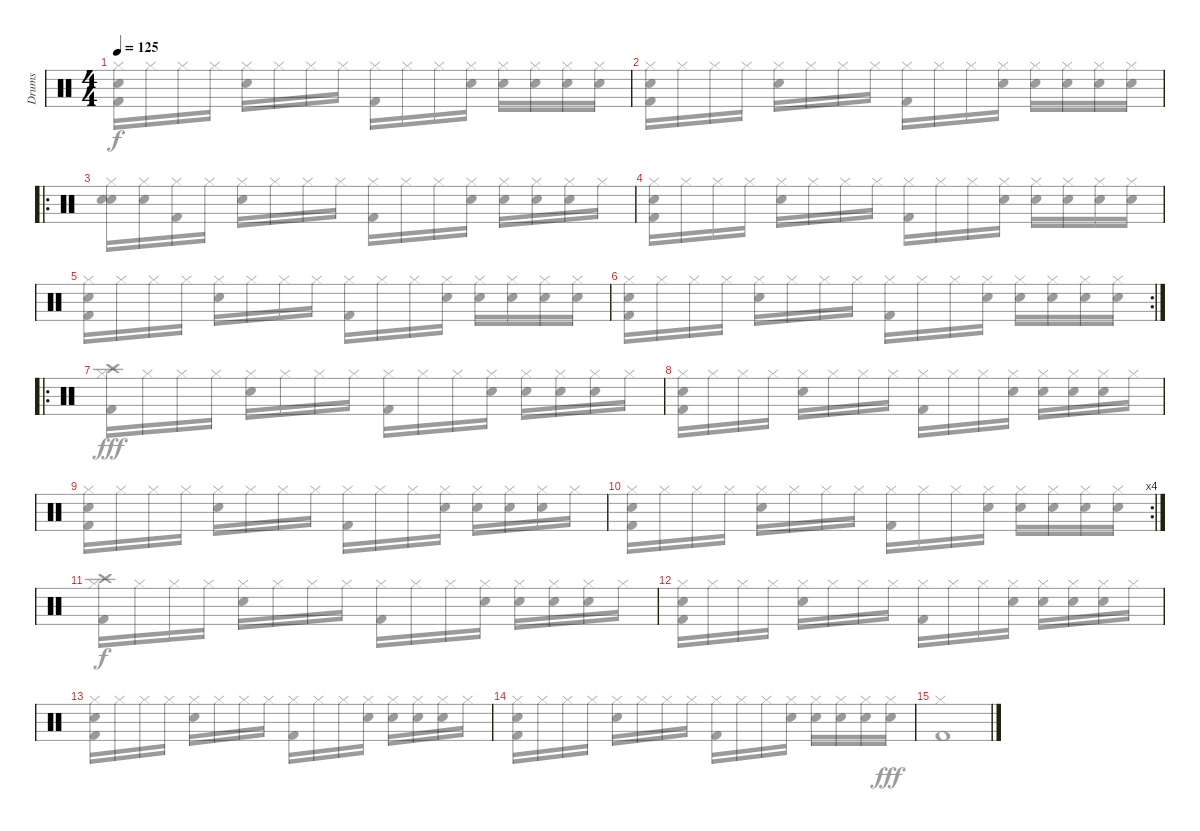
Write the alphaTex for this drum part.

\track ("Drums" "Drums") {instrument percussion}
\staff {score}
\articulation defaults
\voice
\ts (4 4)
\tempo 125
\clef neutral
\ks c
|
|
\ro
|
|
|
\rc 2
|
\ro
|
|
|
\rc 4
|
|
|
|
|
\voice
\clef neutral
\ks c
("Hi-Hat (closed)" "Kick (hit) 2" "Snare (hit)").16{dy f} "Hi-Hat (closed)".16 "Hi-Hat (closed)".16 "Hi-Hat (closed)".16 ("Hi-Hat (closed)" "Electric Snare (hit)").16 "Hi-Hat (closed)".16 "Hi-Hat (closed)".16 "Hi-Hat (closed)".16 ("Hi-Hat (closed)" "Kick (hit) 2").16 "Hi-Hat (closed)".16 "Hi-Hat (closed)".16 ("Hi-Hat (closed)" "Electric Snare (hit)").16 ("Hi-Hat (closed)" "Snare (hit)").16 ("Hi-Hat (closed)" "Electric Snare (hit)").16 ("Hi-Hat (closed)" "Snare (hit)").16 ("Hi-Hat (closed)" "Snare (hit)").16 |
("Hi-Hat (closed)" "Kick (hit) 2" "Snare (hit)").16 "Hi-Hat (closed)".16 "Hi-Hat (closed)".16 "Hi-Hat (closed)".16 ("Hi-Hat (closed)" "Electric Snare (hit)").16 "Hi-Hat (closed)".16 "Hi-Hat (closed)".16 "Hi-Hat (closed)".16 ("Hi-Hat (closed)" "Kick (hit) 2").16 "Hi-Hat (closed)".16 "Hi-Hat (closed)".16 ("Hi-Hat (closed)" "Electric Snare (hit)").16 ("Hi-Hat (closed)" "Snare (hit)").16 ("Hi-Hat (closed)" "Electric Snare (hit)").16 ("Hi-Hat (closed)" "Snare (hit)").16 ("Hi-Hat (closed)" "Electric Snare (hit)").16 |
("Hi-Hat (closed)" "Electric Snare (hit)" "Snare (hit)").16 ("Hi-Hat (closed)" "Electric Snare (hit)").16 ("Hi-Hat (closed)" "Kick (hit) 2").16 "Hi-Hat (closed)".16 ("Hi-Hat (closed)" "Electric Snare (hit)").16 "Hi-Hat (closed)".16 "Hi-Hat (closed)".16 "Hi-Hat (closed)".16 ("Hi-Hat (closed)" "Kick (hit) 2").16 "Hi-Hat (closed)".16 "Hi-Hat (closed)".16 ("Hi-Hat (closed)" "Electric Snare (hit)").16 ("Hi-Hat (closed)" "Snare (hit)").16 ("Hi-Hat (closed)" "Electric Snare (hit)").16 ("Hi-Hat (closed)" "Snare (hit)").16 "Hi-Hat (closed)".16 |
("Hi-Hat (closed)" "Kick (hit) 2" "Snare (hit)").16 "Hi-Hat (closed)".16 "Hi-Hat (closed)".16 "Hi-Hat (closed)".16 ("Hi-Hat (closed)" "Electric Snare (hit)").16 "Hi-Hat (closed)".16 "Hi-Hat (closed)".16 "Hi-Hat (closed)".16 ("Hi-Hat (closed)" "Kick (hit) 2").16 "Hi-Hat (closed)".16 "Hi-Hat (closed)".16 ("Hi-Hat (closed)" "Electric Snare (hit)").16 ("Hi-Hat (closed)" "Snare (hit)").16 ("Hi-Hat (closed)" "Electric Snare (hit)").16 ("Hi-Hat (closed)" "Snare (hit)").16 ("Hi-Hat (closed)" "Snare (hit)").16 |
("Hi-Hat (closed)" "Kick (hit) 2" "Snare (hit)").16 "Hi-Hat (closed)".16 "Hi-Hat (closed)".16 "Hi-Hat (closed)".16 ("Hi-Hat (closed)" "Electric Snare (hit)").16 "Hi-Hat (closed)".16 "Hi-Hat (closed)".16 "Hi-Hat (closed)".16 ("Hi-Hat (closed)" "Kick (hit) 2").16 "Hi-Hat (closed)".16 "Hi-Hat (closed)".16 ("Hi-Hat (closed)" "Electric Snare (hit)").16 ("Hi-Hat (closed)" "Snare (hit)").16 ("Hi-Hat (closed)" "Electric Snare (hit)").16 ("Hi-Hat (closed)" "Snare (hit)").16 ("Hi-Hat (closed)" "Snare (hit)").16 |
("Hi-Hat (closed)" "Kick (hit) 2" "Snare (hit)").16 "Hi-Hat (closed)".16 "Hi-Hat (closed)".16 "Hi-Hat (closed)".16 ("Hi-Hat (closed)" "Electric Snare (hit)").16 "Hi-Hat (closed)".16 "Hi-Hat (closed)".16 "Hi-Hat (closed)".16 ("Hi-Hat (closed)" "Kick (hit) 2").16 "Hi-Hat (closed)".16 "Hi-Hat (closed)".16 ("Hi-Hat (closed)" "Electric Snare (hit)").16 ("Hi-Hat (closed)" "Snare (hit)").16 ("Hi-Hat (closed)" "Electric Snare (hit)").16 ("Hi-Hat (closed)" "Snare (hit)").16 ("Hi-Hat (closed)" "Snare (hit)").16 |
("Hi-Hat (closed)" "Kick (hit) 2" "Crash high (hit)").16{dy fff} "Hi-Hat (closed)".16 "Hi-Hat (closed)".16 "Hi-Hat (closed)".16 ("Hi-Hat (closed)" "Electric Snare (hit)").16 "Hi-Hat (closed)".16 "Hi-Hat (closed)".16 "Hi-Hat (closed)".16 ("Hi-Hat (closed)" "Kick (hit) 2").16 "Hi-Hat (closed)".16 "Hi-Hat (closed)".16 ("Hi-Hat (closed)" "Electric Snare (hit)").16 ("Hi-Hat (closed)" "Snare (hit)").16 ("Hi-Hat (closed)" "Electric Snare (hit)").16 ("Hi-Hat (closed)" "Snare (hit)").16 "Hi-Hat (closed)".16 |
("Hi-Hat (closed)" "Kick (hit) 2" "Snare (hit)").16 "Hi-Hat (closed)".16 "Hi-Hat (closed)".16 "Hi-Hat (closed)".16 ("Hi-Hat (closed)" "Electric Snare (hit)").16 "Hi-Hat (closed)".16 "Hi-Hat (closed)".16 "Hi-Hat (closed)".16 ("Hi-Hat (closed)" "Kick (hit) 2").16 "Hi-Hat (closed)".16 "Hi-Hat (closed)".16 ("Hi-Hat (closed)" "Electric Snare (hit)").16 ("Hi-Hat (closed)" "Snare (hit)").16 ("Hi-Hat (closed)" "Electric Snare (hit)").16 ("Hi-Hat (closed)" "Snare (hit)").16 "Hi-Hat (closed)".16 |
("Hi-Hat (closed)" "Kick (hit) 2" "Snare (hit)").16 "Hi-Hat (closed)".16 "Hi-Hat (closed)".16 "Hi-Hat (closed)".16 ("Hi-Hat (closed)" "Electric Snare (hit)").16 "Hi-Hat (closed)".16 "Hi-Hat (closed)".16 "Hi-Hat (closed)".16 ("Hi-Hat (closed)" "Kick (hit) 2").16 "Hi-Hat (closed)".16 "Hi-Hat (closed)".16 ("Hi-Hat (closed)" "Electric Snare (hit)").16 ("Hi-Hat (closed)" "Snare (hit)").16 ("Hi-Hat (closed)" "Electric Snare (hit)").16 ("Hi-Hat (closed)" "Snare (hit)").16 "Hi-Hat (closed)".16 |
("Hi-Hat (closed)" "Kick (hit) 2" "Snare (hit)").16 "Hi-Hat (closed)".16 "Hi-Hat (closed)".16 "Hi-Hat (closed)".16 ("Hi-Hat (closed)" "Electric Snare (hit)").16 "Hi-Hat (closed)".16 "Hi-Hat (closed)".16 "Hi-Hat (closed)".16 ("Hi-Hat (closed)" "Kick (hit) 2").16 "Hi-Hat (closed)".16 "Hi-Hat (closed)".16 ("Hi-Hat (closed)" "Electric Snare (hit)").16 ("Hi-Hat (closed)" "Snare (hit)").16 ("Hi-Hat (closed)" "Electric Snare (hit)").16 ("Hi-Hat (closed)" "Snare (hit)").16 ("Hi-Hat (closed)" "Electric Snare (hit)").16 |
("Hi-Hat (closed)" "Kick (hit) 2" "Crash high (hit)").16{dy f} "Hi-Hat (closed)".16 "Hi-Hat (closed)".16 "Hi-Hat (closed)".16 ("Hi-Hat (closed)" "Electric Snare (hit)").16 "Hi-Hat (closed)".16 "Hi-Hat (closed)".16 "Hi-Hat (closed)".16 ("Hi-Hat (closed)" "Kick (hit) 2").16 "Hi-Hat (closed)".16 "Hi-Hat (closed)".16 ("Hi-Hat (closed)" "Electric Snare (hit)").16 ("Hi-Hat (closed)" "Snare (hit)").16 ("Hi-Hat (closed)" "Electric Snare (hit)").16 ("Hi-Hat (closed)" "Snare (hit)").16 "Hi-Hat (closed)".16 |
("Hi-Hat (closed)" "Kick (hit) 2" "Snare (hit)").16 "Hi-Hat (closed)".16 "Hi-Hat (closed)".16 "Hi-Hat (closed)".16 ("Hi-Hat (closed)" "Electric Snare (hit)").16 "Hi-Hat (closed)".16 "Hi-Hat (closed)".16 "Hi-Hat (closed)".16 ("Hi-Hat (closed)" "Kick (hit) 2").16 "Hi-Hat (closed)".16 "Hi-Hat (closed)".16 ("Hi-Hat (closed)" "Electric Snare (hit)").16 ("Hi-Hat (closed)" "Snare (hit)").16 ("Hi-Hat (closed)" "Electric Snare (hit)").16 ("Hi-Hat (closed)" "Snare (hit)").16 "Hi-Hat (closed)".16 |
("Hi-Hat (closed)" "Kick (hit) 2" "Snare (hit)").16 "Hi-Hat (closed)".16 "Hi-Hat (closed)".16 "Hi-Hat (closed)".16 ("Hi-Hat (closed)" "Electric Snare (hit)").16 "Hi-Hat (closed)".16 "Hi-Hat (closed)".16 "Hi-Hat (closed)".16 ("Hi-Hat (closed)" "Kick (hit) 2").16 "Hi-Hat (closed)".16 "Hi-Hat (closed)".16 ("Hi-Hat (closed)" "Electric Snare (hit)").16 ("Hi-Hat (closed)" "Snare (hit)").16 ("Hi-Hat (closed)" "Electric Snare (hit)").16 ("Hi-Hat (closed)" "Snare (hit)").16 "Hi-Hat (closed)".16 |
("Hi-Hat (closed)" "Kick (hit) 2" "Snare (hit)").16 "Hi-Hat (closed)".16 "Hi-Hat (closed)".16 "Hi-Hat (closed)".16 ("Hi-Hat (closed)" "Electric Snare (hit)").16 "Hi-Hat (closed)".16 "Hi-Hat (closed)".16 "Hi-Hat (closed)".16 ("Hi-Hat (closed)" "Kick (hit) 2").16 "Hi-Hat (closed)".16 "Hi-Hat (closed)".16 ("Hi-Hat (closed)" "Electric Snare (hit)").16 ("Hi-Hat (closed)" "Snare (hit)").16 ("Hi-Hat (closed)" "Electric Snare (hit)").16 ("Hi-Hat (closed)" "Snare (hit)").16 ("Hi-Hat (closed)" "Electric Snare (hit)").16{dy fff} |
("Hi-Hat (closed)" "Kick (hit) 2").1
